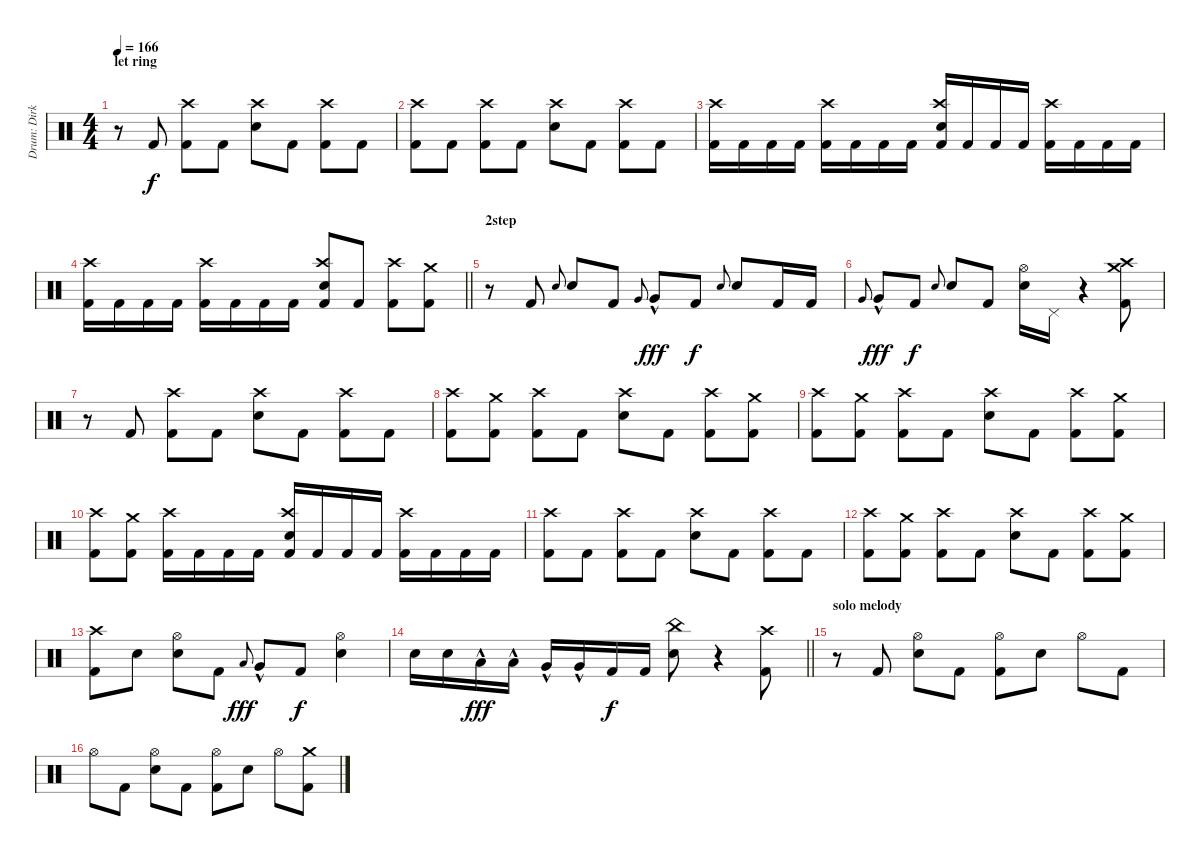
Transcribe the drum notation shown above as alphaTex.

\track ("Drum: Dirk" "Drum: Dirk") {instrument percussion}
\staff {score}
\articulation defaults
\ts (4 4)
\section ("" "let ring")
\tempo 166
\clef neutral
\ks c
r.8{dy f} "Kick (hit) 2".8 ("Crash high (hit)" "Kick (hit) 2").8 "Kick (hit) 2".8 ("Crash high (hit)" "Electric Snare (hit)").8 "Kick (hit) 2".8 ("Crash high (hit)" "Kick (hit) 2").8 "Kick (hit) 2".8 |
("Crash high (hit)" "Kick (hit) 2").8 "Kick (hit) 2".8 ("Crash high (hit)" "Kick (hit) 2").8 "Kick (hit) 2".8 ("Crash high (hit)" "Electric Snare (hit)").8 "Kick (hit) 2".8 ("Crash high (hit)" "Kick (hit) 2").8 "Kick (hit) 2".8 |
("Crash high (hit)" "Kick (hit) 2").16 "Kick (hit) 2".16 "Kick (hit) 2".16 "Kick (hit) 2".16 ("Crash high (hit)" "Kick (hit) 2").16 "Kick (hit) 2".16 "Kick (hit) 2".16 "Kick (hit) 2".16 ("Crash high (hit)" "Electric Snare (hit)" "Kick (hit) 2").16 "Kick (hit) 2".16 "Kick (hit) 2".16 "Kick (hit) 2".16 ("Crash high (hit)" "Kick (hit) 2").16 "Kick (hit) 2".16 "Kick (hit) 2".16 "Kick (hit) 2".16 |
\barLineRight lightlight
("Crash high (hit)" "Kick (hit) 2").16 "Kick (hit) 2".16 "Kick (hit) 2".16 "Kick (hit) 2".16 ("Crash high (hit)" "Kick (hit) 2").16 "Kick (hit) 2".16 "Kick (hit) 2".16 "Kick (hit) 2".16 ("Crash high (hit)" "Electric Snare (hit)" "Kick (hit) 2").8 "Kick (hit) 2".8 ("Crash high (hit)" "Kick (hit) 2").8 ("Crash medium (hit)" "Kick (hit) 2").8 |
\section ("" "2step")
r.8 "Kick (hit) 2".8 "Electric Snare (hit)".8{gr onbeat} "Electric Snare (hit)".8 "Kick (hit) 2".8 "Very Low Tom (hit)".8{gr onbeat} "Very Low Tom (hit)"{hac}.8{dy fff} "Kick (hit) 2".8{dy f} "Electric Snare (hit)".8{gr onbeat} "Electric Snare (hit)".8 "Kick (hit) 2".16 "Kick (hit) 2".16 |
"Very Low Tom (hit)".8{gr onbeat} "Very Low Tom (hit)"{hac}.8{dy fff} "Kick (hit) 2".8{dy f} "Electric Snare (hit)".8{gr onbeat} "Electric Snare (hit)".8 "Kick (hit) 2".8 ("Hi-Hat (open)" "Electric Snare (hit)").16 "Pedal Hi-Hat (hit)".16 r.4 ("Crash high (hit)" "Crash medium (hit)" "Kick (hit) 2").8 |
r.8 "Kick (hit) 2".8 ("Crash high (hit)" "Kick (hit) 2").8 "Kick (hit) 2".8 ("Crash high (hit)" "Electric Snare (hit)").8 "Kick (hit) 2".8 ("Crash high (hit)" "Kick (hit) 2").8 "Kick (hit) 2".8 |
("Crash high (hit)" "Kick (hit) 2").8 ("Crash medium (hit)" "Kick (hit) 2").8 ("Crash high (hit)" "Kick (hit) 2").8 "Kick (hit) 2".8 ("Crash high (hit)" "Electric Snare (hit)").8 "Kick (hit) 2".8 ("Crash high (hit)" "Kick (hit) 2").8 ("Crash medium (hit)" "Kick (hit) 2").8 |
("Crash high (hit)" "Kick (hit) 2").8 ("Crash medium (hit)" "Kick (hit) 2").8 ("Crash high (hit)" "Kick (hit) 2").8 "Kick (hit) 2".8 ("Crash high (hit)" "Electric Snare (hit)").8 "Kick (hit) 2".8 ("Crash high (hit)" "Kick (hit) 2").8 ("Crash medium (hit)" "Kick (hit) 2").8 |
("Crash high (hit)" "Kick (hit) 2").8 ("Crash medium (hit)" "Kick (hit) 2").8 ("Crash high (hit)" "Kick (hit) 2").16 "Kick (hit) 2".16 "Kick (hit) 2".16 "Kick (hit) 2".16 ("Crash high (hit)" "Electric Snare (hit)" "Kick (hit) 2").16 "Kick (hit) 2".16 "Kick (hit) 2".16 "Kick (hit) 2".16 ("Crash high (hit)" "Kick (hit) 2").16 "Kick (hit) 2".16 "Kick (hit) 2".16 "Kick (hit) 2".16 |
("Crash high (hit)" "Kick (hit) 2").8 "Kick (hit) 2".8 ("Crash high (hit)" "Kick (hit) 2").8 "Kick (hit) 2".8 ("Crash high (hit)" "Electric Snare (hit)").8 "Kick (hit) 2".8 ("Crash high (hit)" "Kick (hit) 2").8 "Kick (hit) 2".8 |
("Crash high (hit)" "Kick (hit) 2").8 ("Crash medium (hit)" "Kick (hit) 2").8 ("Crash high (hit)" "Kick (hit) 2").8 "Kick (hit) 2".8 ("Crash high (hit)" "Electric Snare (hit)").8 "Kick (hit) 2".8 ("Crash high (hit)" "Kick (hit) 2").8 ("Crash medium (hit)" "Kick (hit) 2").8 |
("Crash high (hit)" "Kick (hit) 2").8 "Electric Snare (hit)".8 ("Hi-Hat (open)" "Electric Snare (hit)").8 "Kick (hit) 2".8 "Low Tom (hit)".8{gr onbeat dy fff} "Very Low Tom (hit)"{hac}.8 "Kick (hit) 2".8{dy f} ("Hi-Hat (open)" "Electric Snare (hit)").4 |
\barLineRight lightlight "Electric Snare (hit)".16 "Electric Snare (hit)".16 "Low Tom (hit)"{hac}.16{dy fff} "Low Tom (hit)"{hac}.16 "Very Low Tom (hit)"{hac}.16 "Very Low Tom (hit)"{hac}.16 "Kick (hit) 2".16{dy f} "Kick (hit) 2".16
("China (hit)" "Electric Snare (hit)").8 r.4{volume 0} ("Crash high (hit)" "Kick (hit) 2").8{volume 15} |
\section ("" "solo melody")
r.8 "Kick (hit) 2".8 ("Hi-Hat (open)" "Electric Snare (hit)").8 "Kick (hit) 2".8 ("Hi-Hat (open)" "Kick (hit) 2").8 "Electric Snare (hit)".8 "Hi-Hat (open)".8 "Kick (hit) 2".8 |
"Hi-Hat (open)".8 "Kick (hit) 2".8 ("Hi-Hat (open)" "Electric Snare (hit)").8 "Kick (hit) 2".8 ("Hi-Hat (open)" "Kick (hit) 2").8 "Electric Snare (hit)".8 "Hi-Hat (open)".8 ("Crash medium (hit)" "Kick (hit) 2").8
